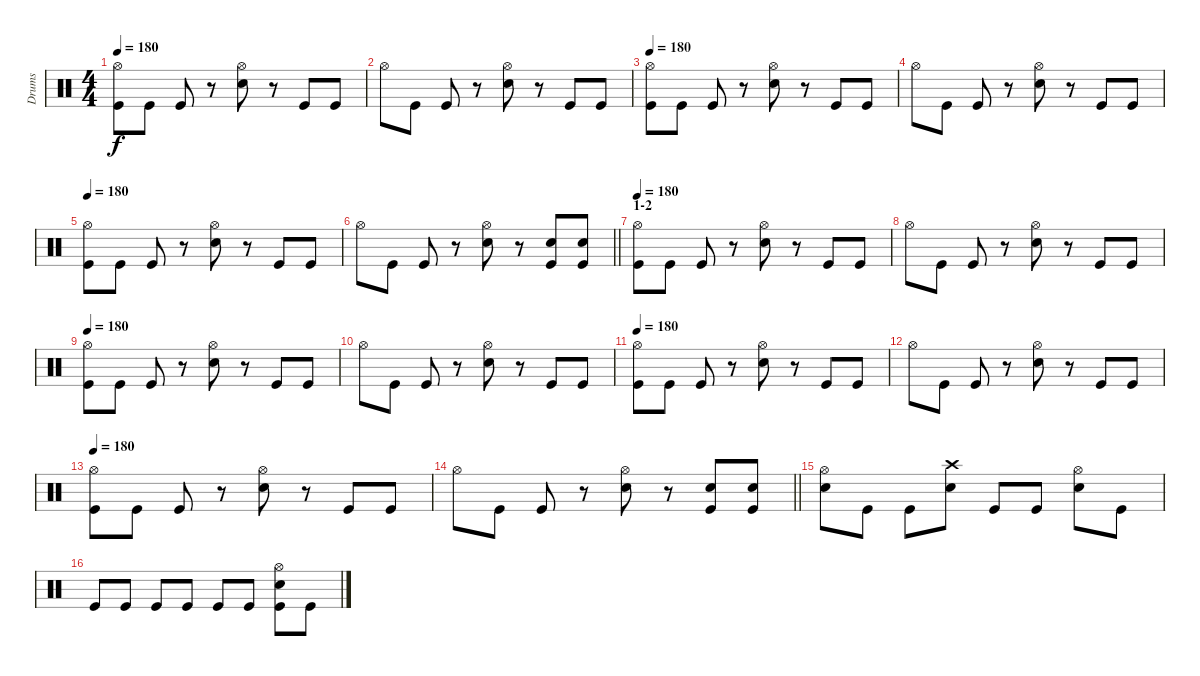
\track ("Drums" "Drums") {instrument percussion}
\staff {score}
\articulation defaults
\ts (4 4)
\tempo 180
\clef neutral
\ks c
("Hi-Hat (open)" "Kick (hit)").8{dy f} "Kick (hit)".8 "Kick (hit)".8 r.8 ("Hi-Hat (open)" "Electric Snare (hit)").8 r.8 "Kick (hit)".8 "Kick (hit)".8 |
"Hi-Hat (open)".8 "Kick (hit)".8 "Kick (hit)".8 r.8 ("Hi-Hat (open)" "Electric Snare (hit)").8 r.8 "Kick (hit)".8 "Kick (hit)".8 |
\tempo 180
("Hi-Hat (open)" "Kick (hit)").8 "Kick (hit)".8 "Kick (hit)".8 r.8 ("Hi-Hat (open)" "Electric Snare (hit)").8 r.8 "Kick (hit)".8 "Kick (hit)".8 |
"Hi-Hat (open)".8 "Kick (hit)".8 "Kick (hit)".8 r.8 ("Hi-Hat (open)" "Electric Snare (hit)").8 r.8 "Kick (hit)".8 "Kick (hit)".8 |
\tempo 180
("Hi-Hat (open)" "Kick (hit)").8 "Kick (hit)".8 "Kick (hit)".8 r.8 ("Hi-Hat (open)" "Electric Snare (hit)").8 r.8 "Kick (hit)".8 "Kick (hit)".8 |
\barLineRight lightlight "Hi-Hat (open)".8 "Kick (hit)".8 "Kick (hit)".8
r.8 ("Hi-Hat (open)" "Electric Snare (hit)").8 r.8 ("Electric Snare (hit)" "Kick (hit)").8 ("Electric Snare (hit)" "Kick (hit)").8 |
\section ("" "1-2")
\tempo 180
("Hi-Hat (open)" "Kick (hit)").8 "Kick (hit)".8 "Kick (hit)".8 r.8 ("Hi-Hat (open)" "Electric Snare (hit)").8 r.8 "Kick (hit)".8 "Kick (hit)".8 |
"Hi-Hat (open)".8 "Kick (hit)".8 "Kick (hit)".8 r.8 ("Hi-Hat (open)" "Electric Snare (hit)").8 r.8 "Kick (hit)".8 "Kick (hit)".8 |
\tempo 180
("Hi-Hat (open)" "Kick (hit)").8 "Kick (hit)".8 "Kick (hit)".8 r.8 ("Hi-Hat (open)" "Electric Snare (hit)").8 r.8 "Kick (hit)".8 "Kick (hit)".8 |
"Hi-Hat (open)".8 "Kick (hit)".8 "Kick (hit)".8 r.8 ("Hi-Hat (open)" "Electric Snare (hit)").8 r.8 "Kick (hit)".8 "Kick (hit)".8 |
\tempo 180
("Hi-Hat (open)" "Kick (hit)").8 "Kick (hit)".8 "Kick (hit)".8 r.8 ("Hi-Hat (open)" "Electric Snare (hit)").8 r.8 "Kick (hit)".8 "Kick (hit)".8 |
"Hi-Hat (open)".8 "Kick (hit)".8 "Kick (hit)".8 r.8 ("Hi-Hat (open)" "Electric Snare (hit)").8 r.8 "Kick (hit)".8 "Kick (hit)".8 |
\tempo 180
("Hi-Hat (open)" "Kick (hit)").8 "Kick (hit)".8 "Kick (hit)".8 r.8 ("Hi-Hat (open)" "Electric Snare (hit)").8 r.8 "Kick (hit)".8 "Kick (hit)".8 |
\barLineRight lightlight "Hi-Hat (open)".8 "Kick (hit)".8 "Kick (hit)".8
r.8 ("Hi-Hat (open)" "Electric Snare (hit)").8 r.8 ("Electric Snare (hit)" "Kick (hit)").8 ("Electric Snare (hit)" "Kick (hit)").8 |
\section ("" "")
("Hi-Hat (open)" "Electric Snare (hit)").8 "Kick (hit)".8 "Kick (hit)".8 ("Crash high (hit)" "Electric Snare (hit)").8 "Kick (hit)".8 "Kick (hit)".8 ("Hi-Hat (open)" "Electric Snare (hit)").8 "Kick (hit)".8 |
"Kick (hit)".8 "Kick (hit)".8 "Kick (hit)".8 "Kick (hit)".8 "Kick (hit)".8 "Kick (hit)".8 ("Hi-Hat (open)" "Electric Snare (hit)" "Kick (hit)").8 "Kick (hit)".8
